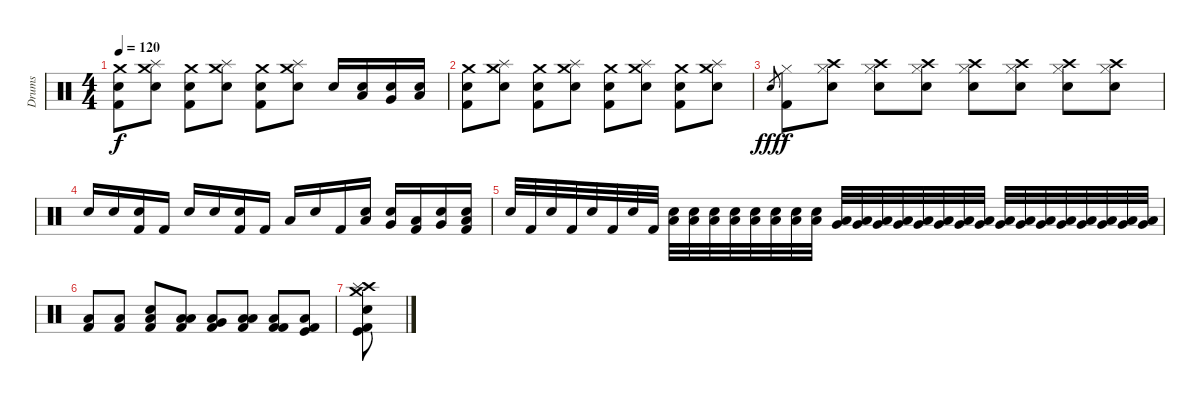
\track ("Drums" "Drums") {instrument percussion}
\staff {score}
\articulation defaults
\ts (4 4)
\tempo 120
\clef neutral
\ks c
("Crash medium (hit)" "Snare (hit)" "Kick (hit) 2").8{dy f} ("Crash medium (hit)" "Splash (hit)" "Snare (hit) 2").8 ("Crash medium (hit)" "Snare (hit)" "Kick (hit) 2").8 ("Crash medium (hit)" "Splash (hit)" "Snare (hit) 2").8 ("Crash medium (hit)" "Snare (hit)" "Kick (hit) 2").8 ("Crash medium (hit)" "Splash (hit)" "Snare (hit) 2").8 "Snare (hit) 2".16 ("Low Tom (hit)" "Snare (hit) 2").16 ("Very Low Tom (hit)" "Snare (hit) 2").16 ("Low Floor Tom (hit)" "Snare (hit) 2").16 |
("Crash medium (hit)" "Snare (hit)" "Kick (hit) 2").8 ("Crash medium (hit)" "Splash (hit)" "Snare (hit) 2").8 ("Crash medium (hit)" "Snare (hit)" "Kick (hit) 2").8 ("Crash medium (hit)" "Splash (hit)" "Snare (hit) 2").8 ("Crash medium (hit)" "Snare (hit)" "Kick (hit) 2").8 ("Crash medium (hit)" "Splash (hit)" "Snare (hit) 2").8 ("Crash medium (hit)" "Snare (hit)" "Kick (hit) 2").8 ("Crash medium (hit)" "Splash (hit)" "Snare (hit) 2").8 |
"Snare (hit) 2".8{gr dy fff} ("Hi-Hat (closed)" "Kick (hit) 2").8{dy f} ("Crash high (hit)" "Hi-Hat (closed)" "Snare (hit) 2").8 ("Crash high (hit)" "Hi-Hat (closed)" "Snare (hit) 2").8 ("Crash high (hit)" "Hi-Hat (closed)" "Snare (hit) 2").8 ("Crash high (hit)" "Hi-Hat (closed)" "Snare (hit) 2").8 ("Crash high (hit)" "Hi-Hat (closed)" "Snare (hit) 2").8 ("Crash high (hit)" "Hi-Hat (closed)" "Snare (hit) 2").8 ("Crash high (hit)" "Hi-Hat (closed)" "Snare (hit) 2").8 |
"Snare (hit) 2".16 "Snare (hit) 2".16 ("Snare (hit) 2" "Kick (hit) 2").16 "Kick (hit) 2".16 "Snare (hit) 2".16 "Snare (hit) 2".16 ("Snare (hit) 2" "Kick (hit) 2").16 "Kick (hit) 2".16 "Low Tom (hit)".16 "Snare (hit) 2".16 "Kick (hit) 2".16 ("Low Tom (hit)" "Snare (hit) 2").16 ("Very Low Tom (hit)" "Snare (hit) 2").16 ("Low Tom (hit)" "Kick (hit) 2").16 ("Very Low Tom (hit)" "Snare (hit) 2").16 ("Low Floor Tom (hit)" "Snare (hit) 2" "Kick (hit) 2").16 |
"Snare (hit) 2".32 "Kick (hit) 2".32 "Snare (hit) 2".32 "Kick (hit) 2".32 "Snare (hit) 2".32 "Kick (hit) 2".32 "Snare (hit) 2".32 "Kick (hit) 2".32 ("Snare (hit) 2" "Low Tom (hit)").32 ("Snare (hit) 2" "Low Tom (hit)").32 ("Snare (hit) 2" "Low Tom (hit)").32 ("Snare (hit) 2" "Low Tom (hit)").32 ("Snare (hit) 2" "Low Tom (hit)").32 ("Snare (hit) 2" "Low Tom (hit)").32 ("Snare (hit) 2" "Low Tom (hit)").32 ("Snare (hit) 2" "Low Tom (hit)").32 ("Low Tom (hit)" "Very Low Tom (hit)").32 ("Low Tom (hit)" "Very Low Tom (hit)").32 ("Low Tom (hit)" "Very Low Tom (hit)").32 ("Low Tom (hit)" "Very Low Tom (hit)").32 ("Low Tom (hit)" "Very Low Tom (hit)").32 ("Low Tom (hit)" "Very Low Tom (hit)").32 ("Low Tom (hit)" "Very Low Tom (hit)").32 ("Low Tom (hit)" "Very Low Tom (hit)").32 ("Very Low Tom (hit)" "Low Floor Tom (hit)").32 ("Very Low Tom (hit)" "Low Floor Tom (hit)").32 ("Very Low Tom (hit)" "Low Floor Tom (hit)").32 ("Very Low Tom (hit)" "Low Floor Tom (hit)").32 ("Very Low Tom (hit)" "Low Floor Tom (hit)").32 ("Very Low Tom (hit)" "Low Floor Tom (hit)").32 ("Very Low Tom (hit)" "Low Floor Tom (hit)").32 ("Very Low Tom (hit)" "Low Floor Tom (hit)").32 |
("Low Floor Tom (hit)" "Kick (hit) 2").8 ("Low Floor Tom (hit)" "Kick (hit) 2").8 ("Low Floor Tom (hit)" "Kick (hit) 2" "Snare (hit) 2").8 ("Low Floor Tom (hit)" "Kick (hit) 2" "Low Tom (hit)").8 ("Low Floor Tom (hit)" "Kick (hit) 2" "Very Low Tom (hit)").8 ("Low Floor Tom (hit)" "Kick (hit) 2" "Low Floor Tom (hit)").8 ("Low Floor Tom (hit)" "Kick (hit) 2" "Kick (hit) 2").8 ("Low Floor Tom (hit)" "Kick (hit) 2" "Kick (hit)").8 |
("Crash medium (hit)" "Crash high (hit)" "Splash (hit)" "Snare (hit) 2" "Kick (hit)" "Kick (hit) 2").8
